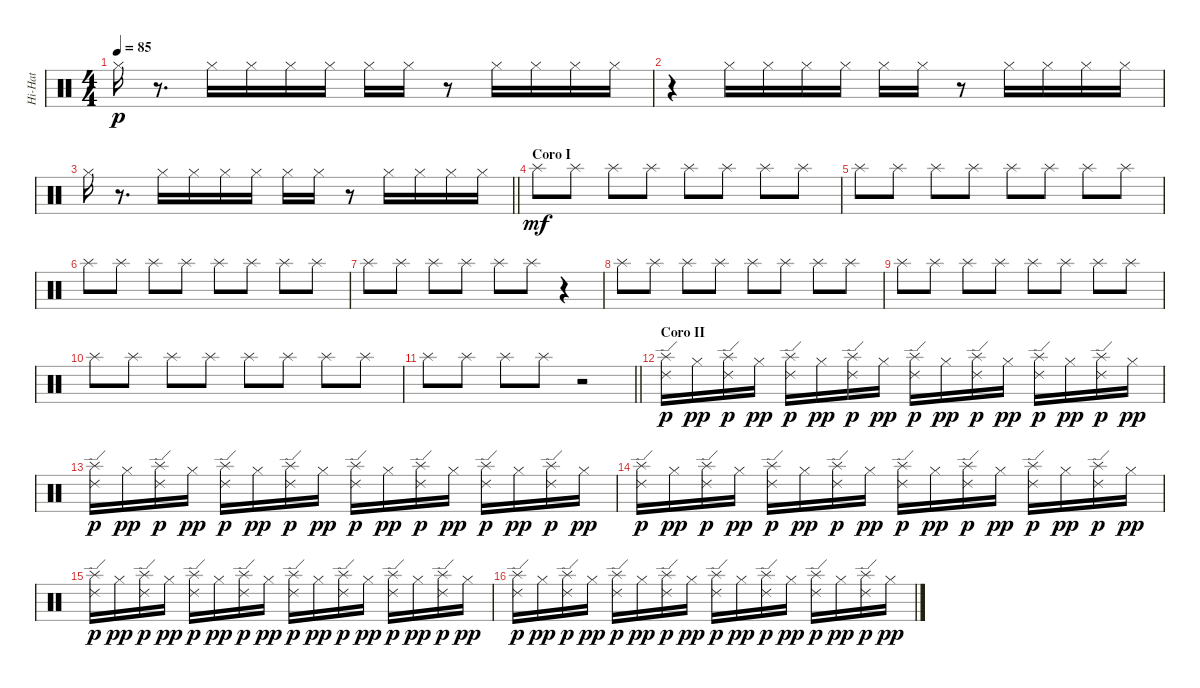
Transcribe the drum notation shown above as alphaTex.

\track ("Hi-Hat" "Hi-Hat") {instrument percussion}
\staff {score}
\articulation defaults
\ts (4 4)
\tempo 85
\clef neutral
\ks c "Hi-Hat (closed)".16{dy p}
r.8{d} "Hi-Hat (closed)".16 "Hi-Hat (closed)".16 "Hi-Hat (closed)".16 "Hi-Hat (closed)".16 "Hi-Hat (closed)".16 "Hi-Hat (closed)".16 r.8 "Hi-Hat (closed)".16 "Hi-Hat (closed)".16 "Hi-Hat (closed)".16 "Hi-Hat (closed)".16 |
r.4 "Hi-Hat (closed)".16 "Hi-Hat (closed)".16 "Hi-Hat (closed)".16 "Hi-Hat (closed)".16 "Hi-Hat (closed)".16 "Hi-Hat (closed)".16 r.8 "Hi-Hat (closed)".16 "Hi-Hat (closed)".16 "Hi-Hat (closed)".16 "Hi-Hat (closed)".16 |
\barLineRight lightlight "Hi-Hat (closed)".16
r.8{d} "Hi-Hat (closed)".16 "Hi-Hat (closed)".16 "Hi-Hat (closed)".16 "Hi-Hat (closed)".16 "Hi-Hat (closed)".16 "Hi-Hat (closed)".16 r.8 "Hi-Hat (closed)".16 "Hi-Hat (closed)".16 "Hi-Hat (closed)".16 "Hi-Hat (closed)".16 |
\section ("" "Coro I")
"Splash (hit)".8{dy mf} "Splash (hit)".8 "Splash (hit)".8 "Splash (hit)".8 "Splash (hit)".8 "Splash (hit)".8 "Splash (hit)".8 "Splash (hit)".8 |
"Splash (hit)".8 "Splash (hit)".8 "Splash (hit)".8 "Splash (hit)".8 "Splash (hit)".8 "Splash (hit)".8 "Splash (hit)".8 "Splash (hit)".8 |
"Splash (hit)".8 "Splash (hit)".8 "Splash (hit)".8 "Splash (hit)".8 "Splash (hit)".8 "Splash (hit)".8 "Splash (hit)".8 "Splash (hit)".8 |
"Splash (hit)".8 "Splash (hit)".8 "Splash (hit)".8 "Splash (hit)".8 "Splash (hit)".8 "Splash (hit)".8 r.4 |
"Splash (hit)".8 "Splash (hit)".8 "Splash (hit)".8 "Splash (hit)".8 "Splash (hit)".8 "Splash (hit)".8 "Splash (hit)".8 "Splash (hit)".8 |
"Splash (hit)".8 "Splash (hit)".8 "Splash (hit)".8 "Splash (hit)".8 "Splash (hit)".8 "Splash (hit)".8 "Splash (hit)".8 "Splash (hit)".8 |
"Splash (hit)".8 "Splash (hit)".8 "Splash (hit)".8 "Splash (hit)".8 "Splash (hit)".8 "Splash (hit)".8 "Splash (hit)".8 "Splash (hit)".8 |
\barLineRight lightlight "Splash (hit)".8 "Splash (hit)".8 "Splash (hit)".8 "Splash (hit)".8
r.2 |
\section ("" "Coro II")
("Ride (edge) 2" "Splash (hit)").16{dy p} "Hi-Hat (closed)".16{dy pp} ("Ride (edge) 2" "Splash (hit)").16{dy p} "Hi-Hat (closed)".16{dy pp} ("Ride (edge) 2" "Splash (hit)").16{dy p} "Hi-Hat (closed)".16{dy pp} ("Ride (edge) 2" "Splash (hit)").16{dy p} "Hi-Hat (closed)".16{dy pp} ("Ride (edge) 2" "Splash (hit)").16{dy p} "Hi-Hat (closed)".16{dy pp} ("Ride (edge) 2" "Splash (hit)").16{dy p} "Hi-Hat (closed)".16{dy pp} ("Ride (edge) 2" "Splash (hit)").16{dy p} "Hi-Hat (closed)".16{dy pp} ("Ride (edge) 2" "Splash (hit)").16{dy p} "Hi-Hat (closed)".16{dy pp} |
("Ride (edge) 2" "Splash (hit)").16{dy p} "Hi-Hat (closed)".16{dy pp} ("Ride (edge) 2" "Splash (hit)").16{dy p} "Hi-Hat (closed)".16{dy pp} ("Ride (edge) 2" "Splash (hit)").16{dy p} "Hi-Hat (closed)".16{dy pp} ("Ride (edge) 2" "Splash (hit)").16{dy p} "Hi-Hat (closed)".16{dy pp} ("Ride (edge) 2" "Splash (hit)").16{dy p} "Hi-Hat (closed)".16{dy pp} ("Ride (edge) 2" "Splash (hit)").16{dy p} "Hi-Hat (closed)".16{dy pp} ("Ride (edge) 2" "Splash (hit)").16{dy p} "Hi-Hat (closed)".16{dy pp} ("Ride (edge) 2" "Splash (hit)").16{dy p} "Hi-Hat (closed)".16{dy pp} |
("Ride (edge) 2" "Splash (hit)").16{dy p} "Hi-Hat (closed)".16{dy pp} ("Ride (edge) 2" "Splash (hit)").16{dy p} "Hi-Hat (closed)".16{dy pp} ("Ride (edge) 2" "Splash (hit)").16{dy p} "Hi-Hat (closed)".16{dy pp} ("Ride (edge) 2" "Splash (hit)").16{dy p} "Hi-Hat (closed)".16{dy pp} ("Ride (edge) 2" "Splash (hit)").16{dy p} "Hi-Hat (closed)".16{dy pp} ("Ride (edge) 2" "Splash (hit)").16{dy p} "Hi-Hat (closed)".16{dy pp} ("Ride (edge) 2" "Splash (hit)").16{dy p} "Hi-Hat (closed)".16{dy pp} ("Ride (edge) 2" "Splash (hit)").16{dy p} "Hi-Hat (closed)".16{dy pp} |
("Ride (edge) 2" "Splash (hit)").16{dy p} "Hi-Hat (closed)".16{dy pp} ("Ride (edge) 2" "Splash (hit)").16{dy p} "Hi-Hat (closed)".16{dy pp} ("Ride (edge) 2" "Splash (hit)").16{dy p} "Hi-Hat (closed)".16{dy pp} ("Ride (edge) 2" "Splash (hit)").16{dy p} "Hi-Hat (closed)".16{dy pp} ("Ride (edge) 2" "Splash (hit)").16{dy p} "Hi-Hat (closed)".16{dy pp} ("Ride (edge) 2" "Splash (hit)").16{dy p} "Hi-Hat (closed)".16{dy pp} ("Ride (edge) 2" "Splash (hit)").16{dy p} "Hi-Hat (closed)".16{dy pp} ("Ride (edge) 2" "Splash (hit)").16{dy p} "Hi-Hat (closed)".16{dy pp} |
("Ride (edge) 2" "Splash (hit)").16{dy p} "Hi-Hat (closed)".16{dy pp} ("Ride (edge) 2" "Splash (hit)").16{dy p} "Hi-Hat (closed)".16{dy pp} ("Ride (edge) 2" "Splash (hit)").16{dy p} "Hi-Hat (closed)".16{dy pp} ("Ride (edge) 2" "Splash (hit)").16{dy p} "Hi-Hat (closed)".16{dy pp} ("Ride (edge) 2" "Splash (hit)").16{dy p} "Hi-Hat (closed)".16{dy pp} ("Ride (edge) 2" "Splash (hit)").16{dy p} "Hi-Hat (closed)".16{dy pp} ("Ride (edge) 2" "Splash (hit)").16{dy p} "Hi-Hat (closed)".16{dy pp} ("Ride (edge) 2" "Splash (hit)").16{dy p} "Hi-Hat (closed)".16{dy pp}
